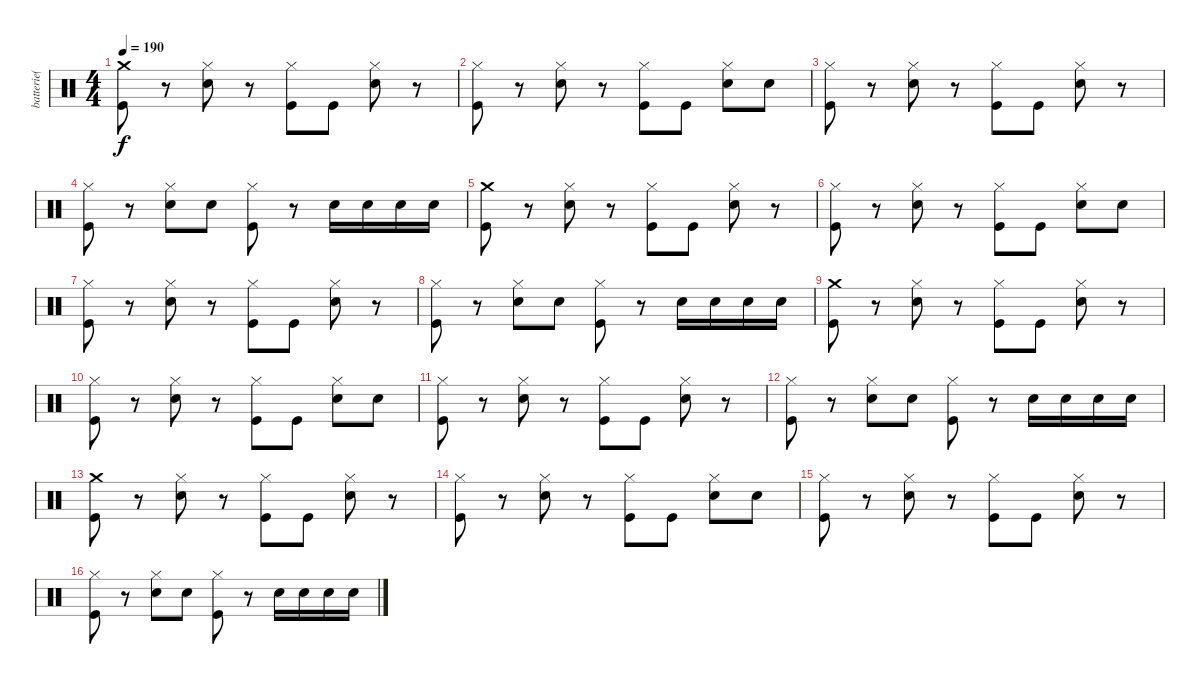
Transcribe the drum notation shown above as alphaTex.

\track ("batterie( Meggers )" "batterie( ") {instrument percussion}
\staff {score}
\articulation defaults
\ts (4 4)
\tempo 190
\clef neutral
\ks c
("Crash medium (hit)" "Kick (hit)").8{dy f} r.8 ("Hi-Hat (closed)" "Snare (hit) 2").8 r.8 ("Hi-Hat (closed)" "Kick (hit)").8 "Kick (hit)".8 ("Hi-Hat (closed)" "Snare (hit) 2").8 r.8 |
("Hi-Hat (closed)" "Kick (hit)").8 r.8 ("Hi-Hat (closed)" "Snare (hit) 2").8 r.8 ("Hi-Hat (closed)" "Kick (hit)").8 "Kick (hit)".8 ("Hi-Hat (closed)" "Snare (hit) 2").8 "Snare (hit) 2".8 |
("Hi-Hat (closed)" "Kick (hit)").8 r.8 ("Hi-Hat (closed)" "Snare (hit) 2").8 r.8 ("Hi-Hat (closed)" "Kick (hit)").8 "Kick (hit)".8 ("Hi-Hat (closed)" "Snare (hit) 2").8 r.8 |
("Hi-Hat (closed)" "Kick (hit)").8 r.8 ("Hi-Hat (closed)" "Snare (hit) 2").8 "Snare (hit) 2".8 ("Hi-Hat (closed)" "Kick (hit)").8 r.8 "Snare (hit) 2".16 "Snare (hit) 2".16 "Snare (hit) 2".16 "Snare (hit) 2".16 |
("Crash medium (hit)" "Kick (hit)").8 r.8 ("Hi-Hat (closed)" "Snare (hit) 2").8 r.8 ("Hi-Hat (closed)" "Kick (hit)").8 "Kick (hit)".8 ("Hi-Hat (closed)" "Snare (hit) 2").8 r.8 |
("Hi-Hat (closed)" "Kick (hit)").8 r.8 ("Hi-Hat (closed)" "Snare (hit) 2").8 r.8 ("Hi-Hat (closed)" "Kick (hit)").8 "Kick (hit)".8 ("Hi-Hat (closed)" "Snare (hit) 2").8 "Snare (hit) 2".8 |
("Hi-Hat (closed)" "Kick (hit)").8 r.8 ("Hi-Hat (closed)" "Snare (hit) 2").8 r.8 ("Hi-Hat (closed)" "Kick (hit)").8 "Kick (hit)".8 ("Hi-Hat (closed)" "Snare (hit) 2").8 r.8 |
("Hi-Hat (closed)" "Kick (hit)").8 r.8 ("Hi-Hat (closed)" "Snare (hit) 2").8 "Snare (hit) 2".8 ("Hi-Hat (closed)" "Kick (hit)").8 r.8 "Snare (hit) 2".16 "Snare (hit) 2".16 "Snare (hit) 2".16 "Snare (hit) 2".16 |
("Crash medium (hit)" "Kick (hit)").8 r.8 ("Hi-Hat (closed)" "Snare (hit) 2").8 r.8 ("Hi-Hat (closed)" "Kick (hit)").8 "Kick (hit)".8 ("Hi-Hat (closed)" "Snare (hit) 2").8 r.8 |
("Hi-Hat (closed)" "Kick (hit)").8 r.8 ("Hi-Hat (closed)" "Snare (hit) 2").8 r.8 ("Hi-Hat (closed)" "Kick (hit)").8 "Kick (hit)".8 ("Hi-Hat (closed)" "Snare (hit) 2").8 "Snare (hit) 2".8 |
("Hi-Hat (closed)" "Kick (hit)").8 r.8 ("Hi-Hat (closed)" "Snare (hit) 2").8 r.8 ("Hi-Hat (closed)" "Kick (hit)").8 "Kick (hit)".8 ("Hi-Hat (closed)" "Snare (hit) 2").8 r.8 |
("Hi-Hat (closed)" "Kick (hit)").8 r.8 ("Hi-Hat (closed)" "Snare (hit) 2").8 "Snare (hit) 2".8 ("Hi-Hat (closed)" "Kick (hit)").8 r.8 "Snare (hit) 2".16 "Snare (hit) 2".16 "Snare (hit) 2".16 "Snare (hit) 2".16 |
("Crash medium (hit)" "Kick (hit)").8 r.8 ("Hi-Hat (closed)" "Snare (hit) 2").8 r.8 ("Hi-Hat (closed)" "Kick (hit)").8 "Kick (hit)".8 ("Hi-Hat (closed)" "Snare (hit) 2").8 r.8 |
("Hi-Hat (closed)" "Kick (hit)").8 r.8 ("Hi-Hat (closed)" "Snare (hit) 2").8 r.8 ("Hi-Hat (closed)" "Kick (hit)").8 "Kick (hit)".8 ("Hi-Hat (closed)" "Snare (hit) 2").8 "Snare (hit) 2".8 |
("Hi-Hat (closed)" "Kick (hit)").8 r.8 ("Hi-Hat (closed)" "Snare (hit) 2").8 r.8 ("Hi-Hat (closed)" "Kick (hit)").8 "Kick (hit)".8 ("Hi-Hat (closed)" "Snare (hit) 2").8 r.8 |
("Hi-Hat (closed)" "Kick (hit)").8 r.8 ("Hi-Hat (closed)" "Snare (hit) 2").8 "Snare (hit) 2".8 ("Hi-Hat (closed)" "Kick (hit)").8 r.8 "Snare (hit) 2".16 "Snare (hit) 2".16 "Snare (hit) 2".16 "Snare (hit) 2".16
